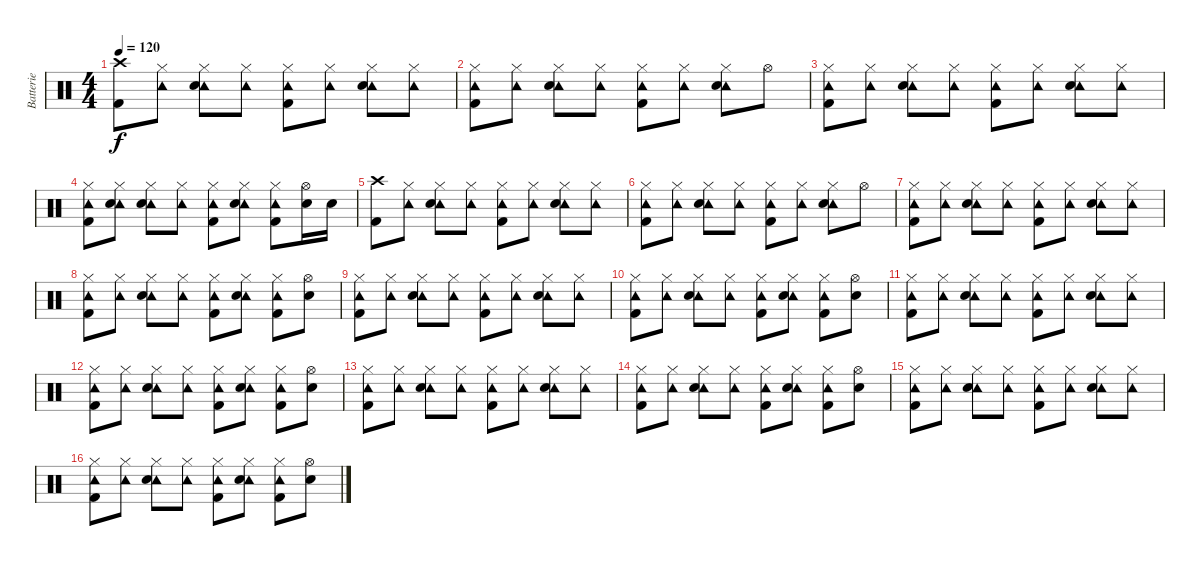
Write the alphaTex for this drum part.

\track ("Batterie" "Batterie") {instrument percussion}
\staff {score}
\articulation defaults
\ts (4 4)
\tempo 120
\clef neutral
\ks c
("Crash high (hit)" "Kick (hit) 2").8{dy f} ("Tambourine (hit)" "Hi-Hat (closed)").8 ("Tambourine (hit)" "Hi-Hat (closed)" "Electric Snare (hit)").8 ("Tambourine (hit)" "Hi-Hat (closed)").8 ("Tambourine (hit)" "Hi-Hat (closed)" "Kick (hit) 2").8 ("Tambourine (hit)" "Hi-Hat (closed)").8 ("Tambourine (hit)" "Hi-Hat (closed)" "Electric Snare (hit)").8 ("Tambourine (hit)" "Hi-Hat (closed)").8 |
("Tambourine (hit)" "Hi-Hat (closed)" "Kick (hit) 2").8 ("Tambourine (hit)" "Hi-Hat (closed)").8 ("Tambourine (hit)" "Hi-Hat (closed)" "Electric Snare (hit)").8 ("Tambourine (hit)" "Hi-Hat (closed)").8 ("Tambourine (hit)" "Hi-Hat (closed)" "Kick (hit) 2").8 ("Tambourine (hit)" "Hi-Hat (closed)").8 ("Tambourine (hit)" "Hi-Hat (closed)" "Electric Snare (hit)").8 "Hi-Hat (open)".8 |
("Tambourine (hit)" "Hi-Hat (closed)" "Kick (hit) 2").8 ("Tambourine (hit)" "Hi-Hat (closed)").8 ("Tambourine (hit)" "Hi-Hat (closed)" "Electric Snare (hit)").8 ("Tambourine (hit)" "Hi-Hat (closed)").8 ("Tambourine (hit)" "Hi-Hat (closed)" "Kick (hit) 2").8 ("Tambourine (hit)" "Hi-Hat (closed)").8 ("Tambourine (hit)" "Hi-Hat (closed)" "Electric Snare (hit)").8 ("Tambourine (hit)" "Hi-Hat (closed)").8 |
("Tambourine (hit)" "Hi-Hat (closed)" "Kick (hit) 2").8 ("Tambourine (hit)" "Hi-Hat (closed)" "Electric Snare (hit)").8 ("Tambourine (hit)" "Hi-Hat (closed)" "Electric Snare (hit)").8 ("Tambourine (hit)" "Hi-Hat (closed)").8 ("Tambourine (hit)" "Hi-Hat (closed)" "Kick (hit) 2").8 ("Tambourine (hit)" "Hi-Hat (closed)" "Electric Snare (hit)").8 ("Tambourine (hit)" "Hi-Hat (closed)" "Kick (hit) 2").8 ("Hi-Hat (open)" "Electric Snare (hit)").16 "Electric Snare (hit)".16 |
("Crash high (hit)" "Kick (hit) 2").8 ("Tambourine (hit)" "Hi-Hat (closed)").8 ("Tambourine (hit)" "Hi-Hat (closed)" "Electric Snare (hit)").8 ("Tambourine (hit)" "Hi-Hat (closed)").8 ("Tambourine (hit)" "Hi-Hat (closed)" "Kick (hit) 2").8 ("Tambourine (hit)" "Hi-Hat (closed)").8 ("Tambourine (hit)" "Hi-Hat (closed)" "Electric Snare (hit)").8 ("Tambourine (hit)" "Hi-Hat (closed)").8 |
("Tambourine (hit)" "Hi-Hat (closed)" "Kick (hit) 2").8 ("Tambourine (hit)" "Hi-Hat (closed)").8 ("Tambourine (hit)" "Hi-Hat (closed)" "Electric Snare (hit)").8 ("Tambourine (hit)" "Hi-Hat (closed)").8 ("Tambourine (hit)" "Hi-Hat (closed)" "Kick (hit) 2").8 ("Tambourine (hit)" "Hi-Hat (closed)").8 ("Tambourine (hit)" "Hi-Hat (closed)" "Electric Snare (hit)").8 "Hi-Hat (open)".8 |
("Tambourine (hit)" "Hi-Hat (closed)" "Kick (hit) 2").8 ("Tambourine (hit)" "Hi-Hat (closed)").8 ("Tambourine (hit)" "Hi-Hat (closed)" "Electric Snare (hit)").8 ("Tambourine (hit)" "Hi-Hat (closed)").8 ("Tambourine (hit)" "Hi-Hat (closed)" "Kick (hit) 2").8 ("Tambourine (hit)" "Hi-Hat (closed)").8 ("Tambourine (hit)" "Hi-Hat (closed)" "Electric Snare (hit)").8 ("Tambourine (hit)" "Hi-Hat (closed)").8 |
("Tambourine (hit)" "Hi-Hat (closed)" "Kick (hit) 2").8 ("Tambourine (hit)" "Hi-Hat (closed)").8 ("Tambourine (hit)" "Hi-Hat (closed)" "Electric Snare (hit)").8 ("Tambourine (hit)" "Hi-Hat (closed)").8 ("Tambourine (hit)" "Hi-Hat (closed)" "Kick (hit) 2").8 ("Tambourine (hit)" "Hi-Hat (closed)" "Electric Snare (hit)").8 ("Tambourine (hit)" "Hi-Hat (closed)" "Kick (hit) 2").8 ("Hi-Hat (open)" "Electric Snare (hit)").8 |
("Tambourine (hit)" "Hi-Hat (closed)" "Kick (hit) 2").8 ("Tambourine (hit)" "Hi-Hat (closed)").8 ("Tambourine (hit)" "Hi-Hat (closed)" "Electric Snare (hit)").8 ("Tambourine (hit)" "Hi-Hat (closed)").8 ("Tambourine (hit)" "Hi-Hat (closed)" "Kick (hit) 2").8 ("Tambourine (hit)" "Hi-Hat (closed)").8 ("Tambourine (hit)" "Hi-Hat (closed)" "Electric Snare (hit)").8 ("Tambourine (hit)" "Hi-Hat (closed)").8 |
("Tambourine (hit)" "Hi-Hat (closed)" "Kick (hit) 2").8 ("Tambourine (hit)" "Hi-Hat (closed)").8 ("Tambourine (hit)" "Hi-Hat (closed)" "Electric Snare (hit)").8 ("Tambourine (hit)" "Hi-Hat (closed)").8 ("Tambourine (hit)" "Hi-Hat (closed)" "Kick (hit) 2").8 ("Tambourine (hit)" "Hi-Hat (closed)" "Electric Snare (hit)").8 ("Tambourine (hit)" "Hi-Hat (closed)" "Kick (hit) 2").8 ("Hi-Hat (open)" "Electric Snare (hit)").8 |
("Tambourine (hit)" "Hi-Hat (closed)" "Kick (hit) 2").8 ("Tambourine (hit)" "Hi-Hat (closed)").8 ("Tambourine (hit)" "Hi-Hat (closed)" "Electric Snare (hit)").8 ("Tambourine (hit)" "Hi-Hat (closed)").8 ("Tambourine (hit)" "Hi-Hat (closed)" "Kick (hit) 2").8 ("Tambourine (hit)" "Hi-Hat (closed)").8 ("Tambourine (hit)" "Hi-Hat (closed)" "Electric Snare (hit)").8 ("Tambourine (hit)" "Hi-Hat (closed)").8 |
("Tambourine (hit)" "Hi-Hat (closed)" "Kick (hit) 2").8 ("Tambourine (hit)" "Hi-Hat (closed)").8 ("Tambourine (hit)" "Hi-Hat (closed)" "Electric Snare (hit)").8 ("Tambourine (hit)" "Hi-Hat (closed)").8 ("Tambourine (hit)" "Hi-Hat (closed)" "Kick (hit) 2").8 ("Tambourine (hit)" "Hi-Hat (closed)" "Electric Snare (hit)").8 ("Tambourine (hit)" "Hi-Hat (closed)" "Kick (hit) 2").8 ("Hi-Hat (open)" "Electric Snare (hit)").8 |
("Tambourine (hit)" "Hi-Hat (closed)" "Kick (hit) 2").8 ("Tambourine (hit)" "Hi-Hat (closed)").8 ("Tambourine (hit)" "Hi-Hat (closed)" "Electric Snare (hit)").8 ("Tambourine (hit)" "Hi-Hat (closed)").8 ("Tambourine (hit)" "Hi-Hat (closed)" "Kick (hit) 2").8 ("Tambourine (hit)" "Hi-Hat (closed)").8 ("Tambourine (hit)" "Hi-Hat (closed)" "Electric Snare (hit)").8 ("Tambourine (hit)" "Hi-Hat (closed)").8 |
("Tambourine (hit)" "Hi-Hat (closed)" "Kick (hit) 2").8 ("Tambourine (hit)" "Hi-Hat (closed)").8 ("Tambourine (hit)" "Hi-Hat (closed)" "Electric Snare (hit)").8 ("Tambourine (hit)" "Hi-Hat (closed)").8 ("Tambourine (hit)" "Hi-Hat (closed)" "Kick (hit) 2").8 ("Tambourine (hit)" "Hi-Hat (closed)" "Electric Snare (hit)").8 ("Tambourine (hit)" "Hi-Hat (closed)" "Kick (hit) 2").8 ("Hi-Hat (open)" "Electric Snare (hit)").8 |
("Tambourine (hit)" "Hi-Hat (closed)" "Kick (hit) 2").8 ("Tambourine (hit)" "Hi-Hat (closed)").8 ("Tambourine (hit)" "Hi-Hat (closed)" "Electric Snare (hit)").8 ("Tambourine (hit)" "Hi-Hat (closed)").8 ("Tambourine (hit)" "Hi-Hat (closed)" "Kick (hit) 2").8 ("Tambourine (hit)" "Hi-Hat (closed)").8 ("Tambourine (hit)" "Hi-Hat (closed)" "Electric Snare (hit)").8 ("Tambourine (hit)" "Hi-Hat (closed)").8 |
("Tambourine (hit)" "Hi-Hat (closed)" "Kick (hit) 2").8 ("Tambourine (hit)" "Hi-Hat (closed)").8 ("Tambourine (hit)" "Hi-Hat (closed)" "Electric Snare (hit)").8 ("Tambourine (hit)" "Hi-Hat (closed)").8 ("Tambourine (hit)" "Hi-Hat (closed)" "Kick (hit) 2").8 ("Tambourine (hit)" "Hi-Hat (closed)" "Electric Snare (hit)").8 ("Tambourine (hit)" "Hi-Hat (closed)" "Kick (hit) 2").8 ("Hi-Hat (open)" "Electric Snare (hit)").8
